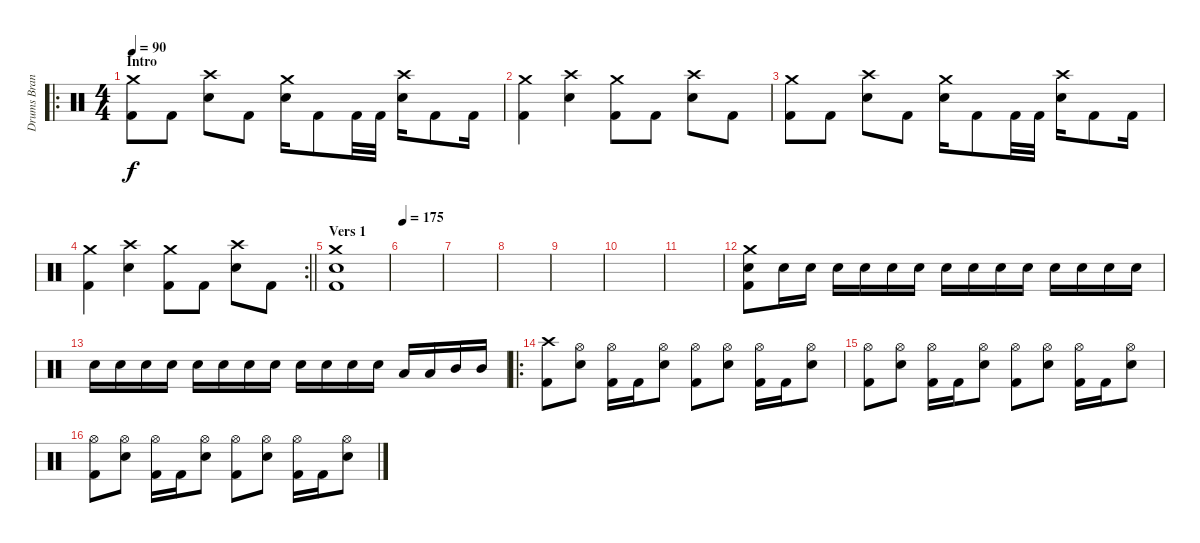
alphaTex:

\track ("Drums Brandon" "Drums Bran") {instrument percussion}
\staff {score}
\articulation defaults
\ro
\ts (4 4)
\section ("" "Intro")
\tempo 90
\clef neutral
\ks c
("Crash medium (hit)" "Kick (hit) 2").8{dy f} "Kick (hit) 2".8 ("Crash high (hit)" "Electric Snare (hit)").8 "Kick (hit) 2".8 ("Crash medium (hit)" "Electric Snare (hit)").16 "Kick (hit) 2".8 "Kick (hit) 2".32 "Kick (hit) 2".32 ("Crash high (hit)" "Electric Snare (hit)").16 "Kick (hit) 2".8 "Kick (hit) 2".16 |
("Crash medium (hit)" "Kick (hit) 2").4 ("Crash high (hit)" "Electric Snare (hit)").4 ("Crash medium (hit)" "Kick (hit) 2").8 "Kick (hit) 2".8 ("Crash high (hit)" "Electric Snare (hit)").8 "Kick (hit) 2".8 |
("Crash medium (hit)" "Kick (hit) 2").8 "Kick (hit) 2".8 ("Crash high (hit)" "Electric Snare (hit)").8 "Kick (hit) 2".8 ("Crash medium (hit)" "Electric Snare (hit)").16 "Kick (hit) 2".8 "Kick (hit) 2".32 "Kick (hit) 2".32 ("Crash high (hit)" "Electric Snare (hit)").16 "Kick (hit) 2".8 "Kick (hit) 2".16 |
\rc 2
\barLineRight lightlight
("Crash medium (hit)" "Kick (hit) 2").4 ("Crash high (hit)" "Electric Snare (hit)").4 ("Crash medium (hit)" "Kick (hit) 2").8 "Kick (hit) 2".8 ("Crash high (hit)" "Electric Snare (hit)").8 "Kick (hit) 2".8 |
\section ("" "Vers 1")
("Crash medium (hit)" "Electric Snare (hit)" "Kick (hit) 2").1 |
\tempo 175
|
|
|
|
|
|
("Crash medium (hit)" "Electric Snare (hit)" "Kick (hit) 2").8 "Electric Snare (hit)".16 "Electric Snare (hit)".16 "Electric Snare (hit)".16 "Electric Snare (hit)".16 "Electric Snare (hit)".16 "Electric Snare (hit)".16 "Electric Snare (hit)".16 "Electric Snare (hit)".16 "Electric Snare (hit)".16 "Electric Snare (hit)".16 "Electric Snare (hit)".16 "Electric Snare (hit)".16 "Electric Snare (hit)".16 "Electric Snare (hit)".16 |
"Electric Snare (hit)".16 "Electric Snare (hit)".16 "Electric Snare (hit)".16 "Electric Snare (hit)".16 "Electric Snare (hit)".16 "Electric Snare (hit)".16 "Electric Snare (hit)".16 "Electric Snare (hit)".16 "Electric Snare (hit)".16 "Electric Snare (hit)".16 "Electric Snare (hit)".16 "Electric Snare (hit)".16 "Low Tom (hit)".16 "Low Tom (hit)".16 "Mid Tom (hit)".16 "Mid Tom (hit)".16 |
\ro
("Crash high (hit)" "Kick (hit) 2").8 ("Hi-Hat (open)" "Electric Snare (hit)").8 ("Hi-Hat (open)" "Kick (hit) 2").16 "Kick (hit) 2".16 ("Hi-Hat (open)" "Electric Snare (hit)").8 ("Hi-Hat (open)" "Kick (hit) 2").8 ("Hi-Hat (open)" "Electric Snare (hit)").8 ("Hi-Hat (open)" "Kick (hit) 2").16 "Kick (hit) 2".16 ("Hi-Hat (open)" "Electric Snare (hit)").8 |
("Hi-Hat (open)" "Kick (hit) 2").8 ("Hi-Hat (open)" "Electric Snare (hit)").8 ("Hi-Hat (open)" "Kick (hit) 2").16 "Kick (hit) 2".16 ("Hi-Hat (open)" "Electric Snare (hit)").8 ("Hi-Hat (open)" "Kick (hit) 2").8 ("Hi-Hat (open)" "Electric Snare (hit)").8 ("Hi-Hat (open)" "Kick (hit) 2").16 "Kick (hit) 2".16 ("Hi-Hat (open)" "Electric Snare (hit)").8 |
("Hi-Hat (open)" "Kick (hit) 2").8 ("Hi-Hat (open)" "Electric Snare (hit)").8 ("Hi-Hat (open)" "Kick (hit) 2").16 "Kick (hit) 2".16 ("Hi-Hat (open)" "Electric Snare (hit)").8 ("Hi-Hat (open)" "Kick (hit) 2").8 ("Hi-Hat (open)" "Electric Snare (hit)").8 ("Hi-Hat (open)" "Kick (hit) 2").16 "Kick (hit) 2".16 ("Hi-Hat (open)" "Electric Snare (hit)").8
